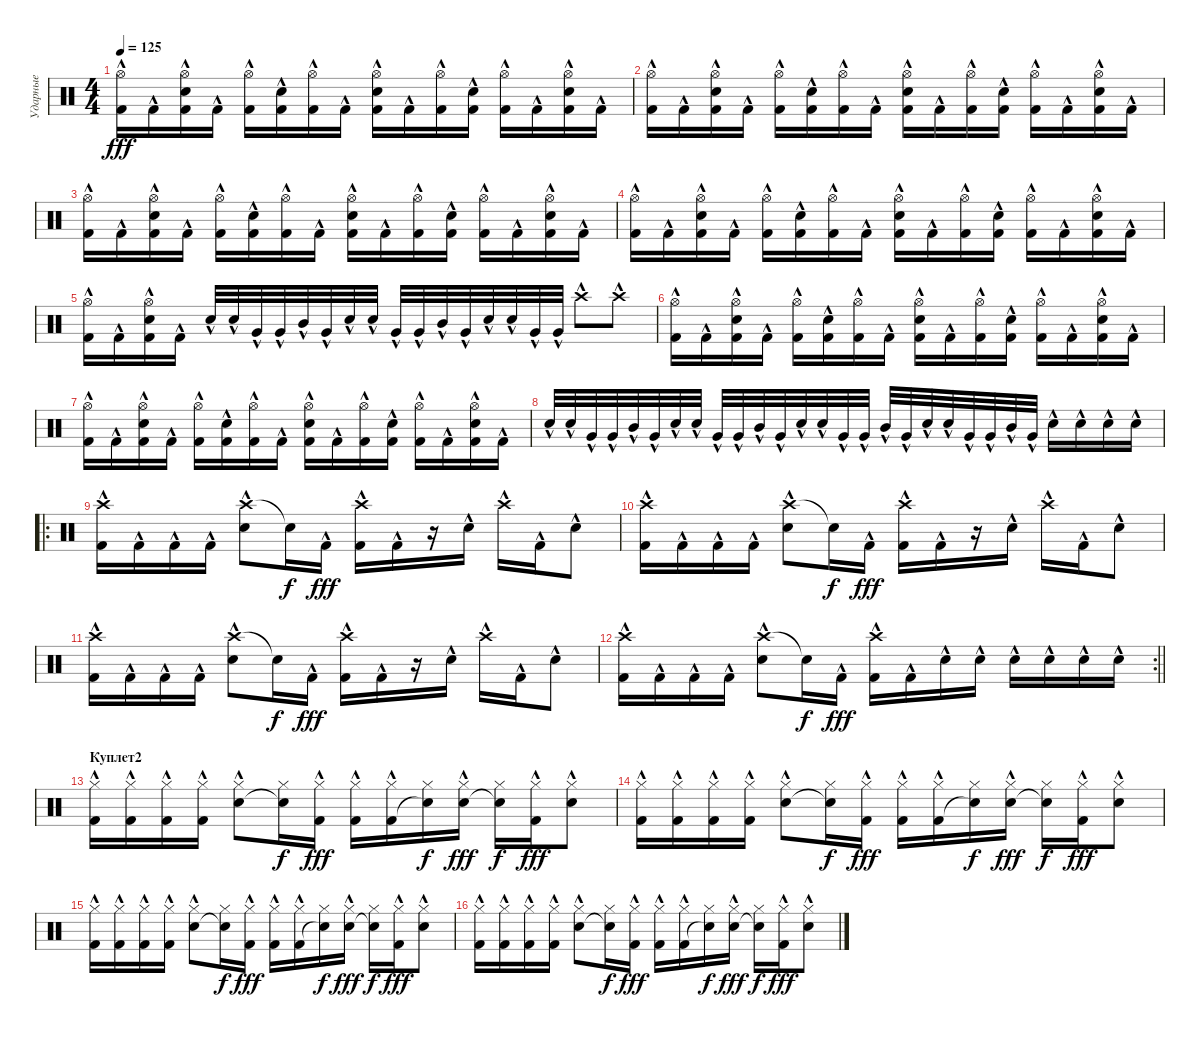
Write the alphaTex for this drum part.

\track ("Ударные" "Ударные") {instrument percussion}
\staff {score}
\articulation defaults
\ts (4 4)
\tempo 125
\clef neutral
\ks c
("Hi-Hat (open)"{hac} "Kick (hit) 2"{hac}).16{dy fff} "Kick (hit) 2"{hac}.16 ("Hi-Hat (open)"{hac} "Electric Snare (hit)"{hac} "Kick (hit) 2"{hac}).16 "Kick (hit) 2"{hac}.16 ("Hi-Hat (open)"{hac} "Kick (hit) 2"{hac}).16 ("Electric Snare (hit)"{hac} "Kick (hit) 2"{hac}).16 ("Hi-Hat (open)"{hac} "Kick (hit) 2"{hac}).16 "Kick (hit) 2"{hac}.16 ("Hi-Hat (open)"{hac} "Electric Snare (hit)"{hac} "Kick (hit) 2"{hac}).16 "Kick (hit) 2"{hac}.16 ("Hi-Hat (open)"{hac} "Kick (hit) 2"{hac}).16 ("Electric Snare (hit)"{hac} "Kick (hit) 2"{hac}).16 ("Hi-Hat (open)"{hac} "Kick (hit) 2"{hac}).16 "Kick (hit) 2"{hac}.16 ("Hi-Hat (open)"{hac} "Electric Snare (hit)"{hac} "Kick (hit) 2"{hac}).16 "Kick (hit) 2"{hac}.16 |
("Hi-Hat (open)"{hac} "Kick (hit) 2"{hac}).16 "Kick (hit) 2"{hac}.16 ("Hi-Hat (open)"{hac} "Electric Snare (hit)"{hac} "Kick (hit) 2"{hac}).16 "Kick (hit) 2"{hac}.16 ("Hi-Hat (open)"{hac} "Kick (hit) 2"{hac}).16 ("Electric Snare (hit)"{hac} "Kick (hit) 2"{hac}).16 ("Hi-Hat (open)"{hac} "Kick (hit) 2"{hac}).16 "Kick (hit) 2"{hac}.16 ("Hi-Hat (open)"{hac} "Electric Snare (hit)"{hac} "Kick (hit) 2"{hac}).16 "Kick (hit) 2"{hac}.16 ("Hi-Hat (open)"{hac} "Kick (hit) 2"{hac}).16 ("Electric Snare (hit)"{hac} "Kick (hit) 2"{hac}).16 ("Hi-Hat (open)"{hac} "Kick (hit) 2"{hac}).16 "Kick (hit) 2"{hac}.16 ("Hi-Hat (open)"{hac} "Electric Snare (hit)"{hac} "Kick (hit) 2"{hac}).16 "Kick (hit) 2"{hac}.16 |
("Hi-Hat (open)"{hac} "Kick (hit) 2"{hac}).16 "Kick (hit) 2"{hac}.16 ("Hi-Hat (open)"{hac} "Electric Snare (hit)"{hac} "Kick (hit) 2"{hac}).16 "Kick (hit) 2"{hac}.16 ("Hi-Hat (open)"{hac} "Kick (hit) 2"{hac}).16 ("Electric Snare (hit)"{hac} "Kick (hit) 2"{hac}).16 ("Hi-Hat (open)"{hac} "Kick (hit) 2"{hac}).16 "Kick (hit) 2"{hac}.16 ("Hi-Hat (open)"{hac} "Electric Snare (hit)"{hac} "Kick (hit) 2"{hac}).16 "Kick (hit) 2"{hac}.16 ("Hi-Hat (open)"{hac} "Kick (hit) 2"{hac}).16 ("Electric Snare (hit)"{hac} "Kick (hit) 2"{hac}).16 ("Hi-Hat (open)"{hac} "Kick (hit) 2"{hac}).16 "Kick (hit) 2"{hac}.16 ("Hi-Hat (open)"{hac} "Electric Snare (hit)"{hac} "Kick (hit) 2"{hac}).16 "Kick (hit) 2"{hac}.16 |
("Hi-Hat (open)"{hac} "Kick (hit) 2"{hac}).16 "Kick (hit) 2"{hac}.16 ("Hi-Hat (open)"{hac} "Electric Snare (hit)"{hac} "Kick (hit) 2"{hac}).16 "Kick (hit) 2"{hac}.16 ("Hi-Hat (open)"{hac} "Kick (hit) 2"{hac}).16 ("Electric Snare (hit)"{hac} "Kick (hit) 2"{hac}).16 ("Hi-Hat (open)"{hac} "Kick (hit) 2"{hac}).16 "Kick (hit) 2"{hac}.16 ("Hi-Hat (open)"{hac} "Electric Snare (hit)"{hac} "Kick (hit) 2"{hac}).16 "Kick (hit) 2"{hac}.16 ("Hi-Hat (open)"{hac} "Kick (hit) 2"{hac}).16 ("Electric Snare (hit)"{hac} "Kick (hit) 2"{hac}).16 ("Hi-Hat (open)"{hac} "Kick (hit) 2"{hac}).16 "Kick (hit) 2"{hac}.16 ("Hi-Hat (open)"{hac} "Electric Snare (hit)"{hac} "Kick (hit) 2"{hac}).16 "Kick (hit) 2"{hac}.16 |
("Hi-Hat (open)"{hac} "Kick (hit) 2"{hac}).16 "Kick (hit) 2"{hac}.16 ("Hi-Hat (open)"{hac} "Electric Snare (hit)"{hac} "Kick (hit) 2"{hac}).16 "Kick (hit) 2"{hac}.16 "Electric Snare (hit)"{hac}.32 "Electric Snare (hit)"{hac}.32 "Very Low Tom (hit)"{hac}.32 "Very Low Tom (hit)"{hac}.32 "Mid Tom (hit)"{hac}.32 "Very Low Tom (hit)"{hac}.32 "Electric Snare (hit)"{hac}.32 "Electric Snare (hit)"{hac}.32 "Very Low Tom (hit)"{hac}.32 "Very Low Tom (hit)"{hac}.32 "Mid Tom (hit)"{hac}.32 "Very Low Tom (hit)"{hac}.32 "Electric Snare (hit)"{hac}.32 "Electric Snare (hit)"{hac}.32 "Very Low Tom (hit)"{hac}.32 "Very Low Tom (hit)"{hac}.32 "Crash high (hit)"{hac}.8 "Crash high (hit)"{hac}.8 |
("Hi-Hat (open)"{hac} "Kick (hit) 2"{hac}).16 "Kick (hit) 2"{hac}.16 ("Hi-Hat (open)"{hac} "Electric Snare (hit)"{hac} "Kick (hit) 2"{hac}).16 "Kick (hit) 2"{hac}.16 ("Hi-Hat (open)"{hac} "Kick (hit) 2"{hac}).16 ("Electric Snare (hit)"{hac} "Kick (hit) 2"{hac}).16 ("Hi-Hat (open)"{hac} "Kick (hit) 2"{hac}).16 "Kick (hit) 2"{hac}.16 ("Hi-Hat (open)"{hac} "Electric Snare (hit)"{hac} "Kick (hit) 2"{hac}).16 "Kick (hit) 2"{hac}.16 ("Hi-Hat (open)"{hac} "Kick (hit) 2"{hac}).16 ("Electric Snare (hit)"{hac} "Kick (hit) 2"{hac}).16 ("Hi-Hat (open)"{hac} "Kick (hit) 2"{hac}).16 "Kick (hit) 2"{hac}.16 ("Hi-Hat (open)"{hac} "Electric Snare (hit)"{hac} "Kick (hit) 2"{hac}).16 "Kick (hit) 2"{hac}.16 |
("Hi-Hat (open)"{hac} "Kick (hit) 2"{hac}).16 "Kick (hit) 2"{hac}.16 ("Hi-Hat (open)"{hac} "Electric Snare (hit)"{hac} "Kick (hit) 2"{hac}).16 "Kick (hit) 2"{hac}.16 ("Hi-Hat (open)"{hac} "Kick (hit) 2"{hac}).16 ("Electric Snare (hit)"{hac} "Kick (hit) 2"{hac}).16 ("Hi-Hat (open)"{hac} "Kick (hit) 2"{hac}).16 "Kick (hit) 2"{hac}.16 ("Hi-Hat (open)"{hac} "Electric Snare (hit)"{hac} "Kick (hit) 2"{hac}).16 "Kick (hit) 2"{hac}.16 ("Hi-Hat (open)"{hac} "Kick (hit) 2"{hac}).16 ("Electric Snare (hit)"{hac} "Kick (hit) 2"{hac}).16 ("Hi-Hat (open)"{hac} "Kick (hit) 2"{hac}).16 "Kick (hit) 2"{hac}.16 ("Hi-Hat (open)"{hac} "Electric Snare (hit)"{hac} "Kick (hit) 2"{hac}).16 "Kick (hit) 2"{hac}.16 |
"Electric Snare (hit)"{hac}.32 "Electric Snare (hit)"{hac}.32 "Very Low Tom (hit)"{hac}.32 "Very Low Tom (hit)"{hac}.32 "Mid Tom (hit)"{hac}.32 "Very Low Tom (hit)"{hac}.32 "Electric Snare (hit)"{hac}.32 "Electric Snare (hit)"{hac}.32 "Very Low Tom (hit)"{hac}.32 "Very Low Tom (hit)"{hac}.32 "Mid Tom (hit)"{hac}.32 "Very Low Tom (hit)"{hac}.32 "Electric Snare (hit)"{hac}.32 "Electric Snare (hit)"{hac}.32 "Very Low Tom (hit)"{hac}.32 "Very Low Tom (hit)"{hac}.32 "Mid Tom (hit)"{hac}.32 "Very Low Tom (hit)"{hac}.32 "Electric Snare (hit)"{hac}.32 "Electric Snare (hit)"{hac}.32 "Very Low Tom (hit)"{hac}.32 "Very Low Tom (hit)"{hac}.32 "Mid Tom (hit)"{hac}.32 "Very Low Tom (hit)"{hac}.32 "Electric Snare (hit)"{hac}.16 "Electric Snare (hit)"{hac}.16 "Electric Snare (hit)"{hac}.16 "Electric Snare (hit)"{hac}.16 |
\ro
("Crash high (hit)"{hac} "Kick (hit) 2"{hac}).16 "Kick (hit) 2"{hac}.16 "Kick (hit) 2"{hac}.16 "Kick (hit) 2"{hac}.16 ("Crash high (hit)"{hac} "Electric Snare (hit)"{hac}).8 "Snare (hit)"{t}.16{dy f} "Kick (hit) 2"{hac}.16{dy fff} ("Crash high (hit)"{hac} "Kick (hit) 2"{hac}).16 "Kick (hit) 2"{hac}.16 r.16 "Electric Snare (hit)"{hac}.16 "Crash high (hit)"{hac}.16 "Kick (hit) 2"{hac}.16 "Electric Snare (hit)"{hac}.8 |
("Crash high (hit)"{hac} "Kick (hit) 2"{hac}).16 "Kick (hit) 2"{hac}.16 "Kick (hit) 2"{hac}.16 "Kick (hit) 2"{hac}.16 ("Crash high (hit)"{hac} "Electric Snare (hit)"{hac}).8 "Snare (hit)"{t}.16{dy f} "Kick (hit) 2"{hac}.16{dy fff} ("Crash high (hit)"{hac} "Kick (hit) 2"{hac}).16 "Kick (hit) 2"{hac}.16 r.16 "Electric Snare (hit)"{hac}.16 "Crash high (hit)"{hac}.16 "Kick (hit) 2"{hac}.16 "Electric Snare (hit)"{hac}.8 |
("Crash high (hit)"{hac} "Kick (hit) 2"{hac}).16 "Kick (hit) 2"{hac}.16 "Kick (hit) 2"{hac}.16 "Kick (hit) 2"{hac}.16 ("Crash high (hit)"{hac} "Electric Snare (hit)"{hac}).8 "Snare (hit)"{t}.16{dy f} "Kick (hit) 2"{hac}.16{dy fff} ("Crash high (hit)"{hac} "Kick (hit) 2"{hac}).16 "Kick (hit) 2"{hac}.16 r.16 "Electric Snare (hit)"{hac}.16 "Crash high (hit)"{hac}.16 "Kick (hit) 2"{hac}.16 "Electric Snare (hit)"{hac}.8 |
\rc 2
\barLineRight lightlight
("Crash high (hit)"{hac} "Kick (hit) 2"{hac}).16 "Kick (hit) 2"{hac}.16 "Kick (hit) 2"{hac}.16 "Kick (hit) 2"{hac}.16 ("Crash high (hit)"{hac} "Electric Snare (hit)"{hac}).8 "Snare (hit)"{t}.16{dy f} "Kick (hit) 2"{hac}.16{dy fff} ("Crash high (hit)"{hac} "Kick (hit) 2"{hac}).16 "Kick (hit) 2"{hac}.16 "Electric Snare (hit)"{hac}.16 "Electric Snare (hit)"{hac}.16 "Electric Snare (hit)"{hac}.16 "Electric Snare (hit)"{hac}.16 "Electric Snare (hit)"{hac}.16 "Electric Snare (hit)"{hac}.16 |
\section ("" "Куплет2")
("Hi-Hat (closed)" "Kick (hit) 2"{hac}).16 ("Hi-Hat (closed)" "Kick (hit) 2"{hac}).16 ("Hi-Hat (closed)" "Kick (hit) 2"{hac}).16 ("Hi-Hat (closed)" "Kick (hit) 2"{hac}).16 ("Hi-Hat (closed)" "Electric Snare (hit)"{hac}).8 ("Hi-Hat (closed)" "Snare (hit)"{t}).16{dy f} ("Hi-Hat (closed)" "Kick (hit) 2"{hac}).16{dy fff} ("Hi-Hat (closed)" "Kick (hit) 2"{hac}).16 ("Hi-Hat (closed)" "Kick (hit) 2"{hac}).16 ("Hi-Hat (closed)" "Snare (hit)"{t}).16{dy f} ("Hi-Hat (closed)" "Electric Snare (hit)"{hac}).16{dy fff} ("Hi-Hat (closed)" "Snare (hit)"{t}).16{dy f} ("Hi-Hat (closed)" "Kick (hit) 2"{hac}).16{dy fff} ("Hi-Hat (closed)" "Electric Snare (hit)"{hac}).8 |
("Hi-Hat (closed)" "Kick (hit) 2"{hac}).16 ("Hi-Hat (closed)" "Kick (hit) 2"{hac}).16 ("Hi-Hat (closed)" "Kick (hit) 2"{hac}).16 ("Hi-Hat (closed)" "Kick (hit) 2"{hac}).16 ("Hi-Hat (closed)" "Electric Snare (hit)"{hac}).8 ("Hi-Hat (closed)" "Snare (hit)"{t}).16{dy f} ("Hi-Hat (closed)" "Kick (hit) 2"{hac}).16{dy fff} ("Hi-Hat (closed)" "Kick (hit) 2"{hac}).16 ("Hi-Hat (closed)" "Kick (hit) 2"{hac}).16 ("Hi-Hat (closed)" "Snare (hit)"{t}).16{dy f} ("Hi-Hat (closed)" "Electric Snare (hit)"{hac}).16{dy fff} ("Hi-Hat (closed)" "Snare (hit)"{t}).16{dy f} ("Hi-Hat (closed)" "Kick (hit) 2"{hac}).16{dy fff} ("Hi-Hat (closed)" "Electric Snare (hit)"{hac}).8 |
("Hi-Hat (closed)" "Kick (hit) 2"{hac}).16 ("Hi-Hat (closed)" "Kick (hit) 2"{hac}).16 ("Hi-Hat (closed)" "Kick (hit) 2"{hac}).16 ("Hi-Hat (closed)" "Kick (hit) 2"{hac}).16 ("Hi-Hat (closed)" "Electric Snare (hit)"{hac}).8 ("Hi-Hat (closed)" "Snare (hit)"{t}).16{dy f} ("Hi-Hat (closed)" "Kick (hit) 2"{hac}).16{dy fff} ("Hi-Hat (closed)" "Kick (hit) 2"{hac}).16 ("Hi-Hat (closed)" "Kick (hit) 2"{hac}).16 ("Hi-Hat (closed)" "Snare (hit)"{t}).16{dy f} ("Hi-Hat (closed)" "Electric Snare (hit)"{hac}).16{dy fff} ("Hi-Hat (closed)" "Snare (hit)"{t}).16{dy f} ("Hi-Hat (closed)" "Kick (hit) 2"{hac}).16{dy fff} ("Hi-Hat (closed)" "Electric Snare (hit)"{hac}).8 |
("Hi-Hat (closed)" "Kick (hit) 2"{hac}).16 ("Hi-Hat (closed)" "Kick (hit) 2"{hac}).16 ("Hi-Hat (closed)" "Kick (hit) 2"{hac}).16 ("Hi-Hat (closed)" "Kick (hit) 2"{hac}).16 ("Hi-Hat (closed)" "Electric Snare (hit)"{hac}).8 ("Hi-Hat (closed)" "Snare (hit)"{t}).16{dy f} ("Hi-Hat (closed)" "Kick (hit) 2"{hac}).16{dy fff} ("Hi-Hat (closed)" "Kick (hit) 2"{hac}).16 ("Hi-Hat (closed)" "Kick (hit) 2"{hac}).16 ("Hi-Hat (closed)" "Snare (hit)"{t}).16{dy f} ("Hi-Hat (closed)" "Electric Snare (hit)"{hac}).16{dy fff} ("Hi-Hat (closed)" "Snare (hit)"{t}).16{dy f} ("Hi-Hat (closed)" "Kick (hit) 2"{hac}).16{dy fff} ("Hi-Hat (closed)" "Electric Snare (hit)"{hac}).8
